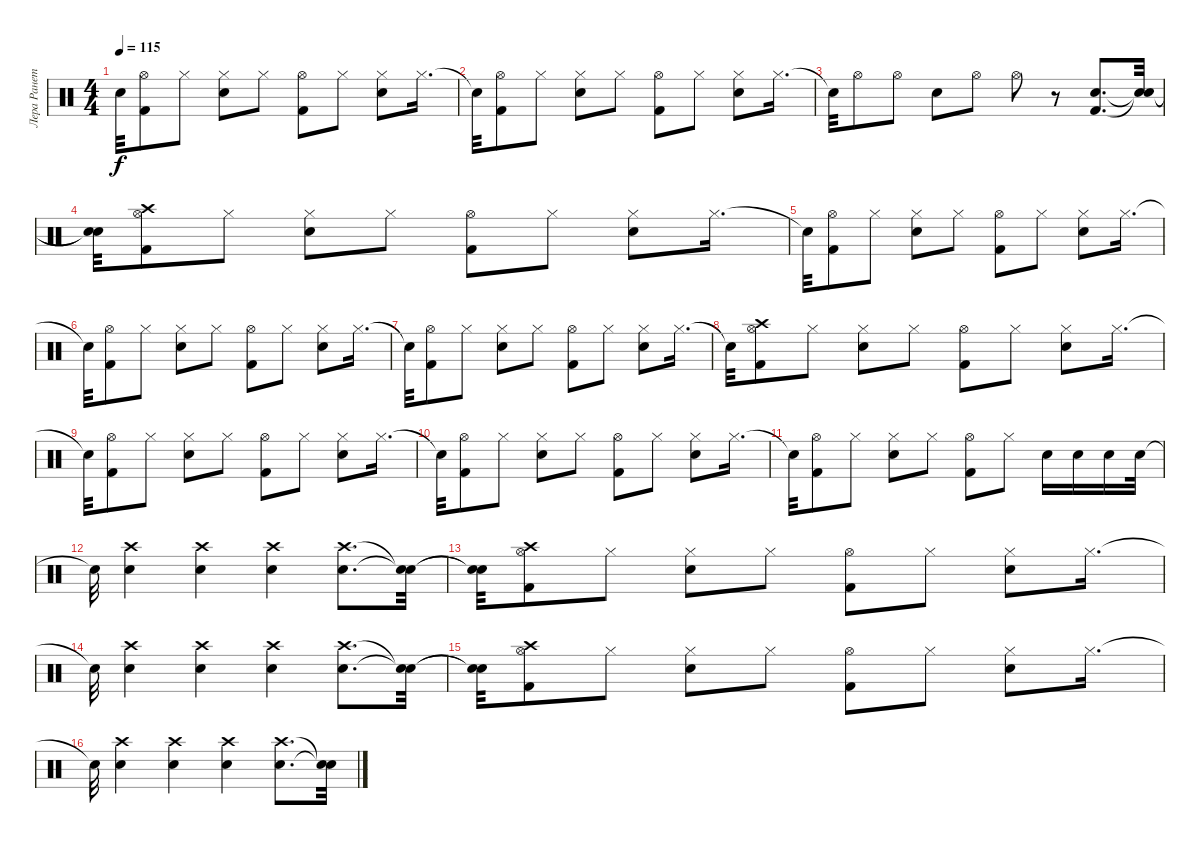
\track ("Лера Ранетка" "Лера Ранет") {instrument percussion}
\staff {score}
\articulation defaults
\ts (4 4)
\tempo 115
\clef neutral
\ks c "Snare (hit)"{t}.32{dy f}
("Hi-Hat (open)" "Kick (hit) 2").8 "Hi-Hat (closed)".8 ("Hi-Hat (closed)" "Electric Snare (hit)").8 "Hi-Hat (closed)".8 ("Hi-Hat (open)" "Kick (hit) 2").8 "Hi-Hat (closed)".8 ("Hi-Hat (closed)" "Electric Snare (hit)").8 "Hi-Hat (closed)".16{d} |
"Snare (hit)"{t}.32 ("Hi-Hat (open)" "Kick (hit) 2").8 "Hi-Hat (closed)".8 ("Hi-Hat (closed)" "Electric Snare (hit)").8 "Hi-Hat (closed)".8 ("Hi-Hat (open)" "Kick (hit) 2").8 "Hi-Hat (closed)".8 ("Hi-Hat (closed)" "Electric Snare (hit)").8 "Hi-Hat (closed)".16{d} |
"Snare (hit)"{t}.32 "Hi-Hat (open)".8 "Hi-Hat (open)".8 "Electric Snare (hit)".8 "Hi-Hat (open)".8 "Hi-Hat (open)".8 r.8 ("Electric Snare (hit)" "Kick (hit) 2").8{d} ("Snare (hit)"{t} "Snare (hit)"{t}).32 |
("Snare (hit)"{t} "Snare (hit)"{t}).32 ("Hi-Hat (open)" "Kick (hit) 2" "Crash high (hit)").8 "Hi-Hat (closed)".8 ("Hi-Hat (closed)" "Electric Snare (hit)").8 "Hi-Hat (closed)".8 ("Hi-Hat (open)" "Kick (hit) 2").8 "Hi-Hat (closed)".8 ("Hi-Hat (closed)" "Electric Snare (hit)").8 "Hi-Hat (closed)".16{d} |
"Snare (hit)"{t}.32 ("Hi-Hat (open)" "Kick (hit) 2").8 "Hi-Hat (closed)".8 ("Hi-Hat (closed)" "Electric Snare (hit)").8 "Hi-Hat (closed)".8 ("Hi-Hat (open)" "Kick (hit) 2").8 "Hi-Hat (closed)".8 ("Hi-Hat (closed)" "Electric Snare (hit)").8 "Hi-Hat (closed)".16{d} |
"Snare (hit)"{t}.32 ("Hi-Hat (open)" "Kick (hit) 2").8 "Hi-Hat (closed)".8 ("Hi-Hat (closed)" "Electric Snare (hit)").8 "Hi-Hat (closed)".8 ("Hi-Hat (open)" "Kick (hit) 2").8 "Hi-Hat (closed)".8 ("Hi-Hat (closed)" "Electric Snare (hit)").8 "Hi-Hat (closed)".16{d} |
"Snare (hit)"{t}.32 ("Hi-Hat (open)" "Kick (hit) 2").8 "Hi-Hat (closed)".8 ("Hi-Hat (closed)" "Electric Snare (hit)").8 "Hi-Hat (closed)".8 ("Hi-Hat (open)" "Kick (hit) 2").8 "Hi-Hat (closed)".8 ("Hi-Hat (closed)" "Electric Snare (hit)").8 "Hi-Hat (closed)".16{d} |
"Snare (hit)"{t}.32 ("Hi-Hat (open)" "Kick (hit) 2" "Crash high (hit)").8 "Hi-Hat (closed)".8 ("Hi-Hat (closed)" "Electric Snare (hit)").8 "Hi-Hat (closed)".8 ("Hi-Hat (open)" "Kick (hit) 2").8 "Hi-Hat (closed)".8 ("Hi-Hat (closed)" "Electric Snare (hit)").8 "Hi-Hat (closed)".16{d} |
"Snare (hit)"{t}.32 ("Hi-Hat (open)" "Kick (hit) 2").8 "Hi-Hat (closed)".8 ("Hi-Hat (closed)" "Electric Snare (hit)").8 "Hi-Hat (closed)".8 ("Hi-Hat (open)" "Kick (hit) 2").8 "Hi-Hat (closed)".8 ("Hi-Hat (closed)" "Electric Snare (hit)").8 "Hi-Hat (closed)".16{d} |
"Snare (hit)"{t}.32 ("Hi-Hat (open)" "Kick (hit) 2").8 "Hi-Hat (closed)".8 ("Hi-Hat (closed)" "Electric Snare (hit)").8 "Hi-Hat (closed)".8 ("Hi-Hat (open)" "Kick (hit) 2").8 "Hi-Hat (closed)".8 ("Hi-Hat (closed)" "Electric Snare (hit)").8 "Hi-Hat (closed)".16{d} |
"Snare (hit)"{t}.32 ("Hi-Hat (open)" "Kick (hit) 2").8 "Hi-Hat (closed)".8 ("Hi-Hat (closed)" "Electric Snare (hit)").8 "Hi-Hat (closed)".8 ("Hi-Hat (open)" "Kick (hit) 2").8 "Hi-Hat (closed)".8 "Electric Snare (hit)".16 "Electric Snare (hit)".16 "Electric Snare (hit)".16 "Electric Snare (hit)".32 |
"Snare (hit)"{t}.32 ("Electric Snare (hit)" "Crash high (hit)").4 ("Electric Snare (hit)" "Crash high (hit)").4 ("Electric Snare (hit)" "Crash high (hit)").4 ("Electric Snare (hit)" "Crash high (hit)").8{d} ("Snare (hit)"{t} "Snare (hit)"{t}).32 |
("Snare (hit)"{t} "Snare (hit)"{t}).32 ("Hi-Hat (open)" "Kick (hit) 2" "Crash high (hit)").8 "Hi-Hat (closed)".8 ("Hi-Hat (closed)" "Electric Snare (hit)").8 "Hi-Hat (closed)".8 ("Hi-Hat (open)" "Kick (hit) 2").8 "Hi-Hat (closed)".8 ("Hi-Hat (closed)" "Electric Snare (hit)").8 "Hi-Hat (closed)".16{d} |
"Snare (hit)"{t}.32 ("Electric Snare (hit)" "Crash high (hit)").4 ("Electric Snare (hit)" "Crash high (hit)").4 ("Electric Snare (hit)" "Crash high (hit)").4 ("Electric Snare (hit)" "Crash high (hit)").8{d} ("Snare (hit)"{t} "Snare (hit)"{t}).32 |
("Snare (hit)"{t} "Snare (hit)"{t}).32 ("Hi-Hat (open)" "Kick (hit) 2" "Crash high (hit)").8 "Hi-Hat (closed)".8 ("Hi-Hat (closed)" "Electric Snare (hit)").8 "Hi-Hat (closed)".8 ("Hi-Hat (open)" "Kick (hit) 2").8 "Hi-Hat (closed)".8 ("Hi-Hat (closed)" "Electric Snare (hit)").8 "Hi-Hat (closed)".16{d} |
"Snare (hit)"{t}.32 ("Electric Snare (hit)" "Crash high (hit)").4 ("Electric Snare (hit)" "Crash high (hit)").4 ("Electric Snare (hit)" "Crash high (hit)").4 ("Electric Snare (hit)" "Crash high (hit)").8{d} ("Snare (hit)"{t} "Snare (hit)"{t}).32
